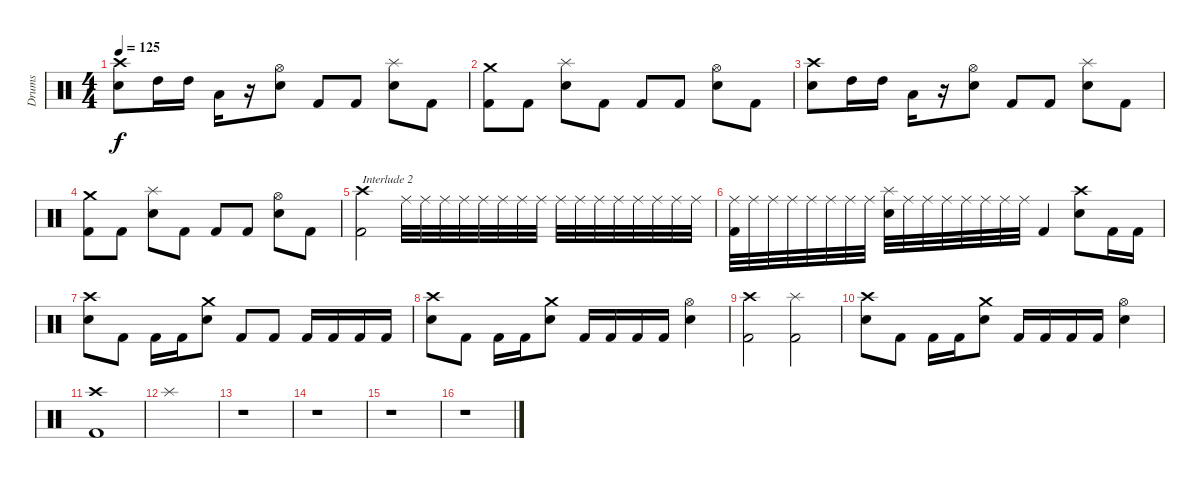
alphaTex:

\track ("Drums" "Drums") {instrument percussion}
\staff {score}
\articulation defaults
\ts (4 4)
\tempo 125
\clef neutral
\ks c
("Crash high (hit)" "Snare (hit) 2").8{dy f} "High Tom (hit)".16 "High Tom (hit)".16 "Low Tom (hit)".16 r.16 ("Hi-Hat (open)" "Snare (hit) 2").8 "Kick (hit) 2".8 "Kick (hit) 2".8 ("Splash (hit)" "Snare (hit) 2").8 "Kick (hit) 2".8 |
("Crash medium (hit)" "Kick (hit) 2").8 "Kick (hit) 2".8 ("Splash (hit)" "Snare (hit) 2").8 "Kick (hit) 2".8 "Kick (hit) 2".8 "Kick (hit) 2".8 ("Hi-Hat (open)" "Snare (hit) 2").8 "Kick (hit) 2".8 |
("Crash high (hit)" "Snare (hit) 2").8 "High Tom (hit)".16 "High Tom (hit)".16 "Low Tom (hit)".16 r.16 ("Hi-Hat (open)" "Snare (hit) 2").8 "Kick (hit) 2".8 "Kick (hit) 2".8 ("Splash (hit)" "Snare (hit) 2").8 "Kick (hit) 2".8 |
("Crash medium (hit)" "Kick (hit) 2").8 "Kick (hit) 2".8 ("Splash (hit)" "Snare (hit) 2").8 "Kick (hit) 2".8 "Kick (hit) 2".8 "Kick (hit) 2".8 ("Hi-Hat (open)" "Snare (hit) 2").8 "Kick (hit) 2".8 |
("Crash high (hit)" "Kick (hit) 2").2{txt "Interlude 2"} "Ride (middle)".32 "Ride (middle)".32 "Ride (middle)".32 "Ride (middle)".32 "Ride (middle)".32 "Ride (middle)".32 "Ride (middle)".32 "Ride (middle)".32 "Ride (middle)".32 "Ride (middle)".32 "Ride (middle)".32 "Ride (middle)".32 "Ride (middle)".32 "Ride (middle)".32 "Ride (middle)".32 "Ride (middle)".32 |
("Ride (middle)" "Kick (hit) 2").32 "Ride (middle)".32 "Ride (middle)".32 "Ride (middle)".32 "Ride (middle)".32 "Ride (middle)".32 "Ride (middle)".32 "Ride (middle)".32 ("Splash (hit)" "Snare (hit) 2").32 "Ride (middle)".32 "Ride (middle)".32 "Ride (middle)".32 "Ride (middle)".32 "Ride (middle)".32 "Ride (middle)".32 "Ride (middle)".32 "Kick (hit) 2".4 ("Crash high (hit)" "Snare (hit) 2").8 "Kick (hit) 2".16 "Kick (hit) 2".16 |
("Crash high (hit)" "Snare (hit) 2").8 "Kick (hit) 2".8 "Kick (hit) 2".16 "Kick (hit) 2".16 ("Crash medium (hit)" "Snare (hit) 2").8 "Kick (hit) 2".8 "Kick (hit) 2".8 "Kick (hit) 2".16 "Kick (hit) 2".16 "Kick (hit) 2".16 "Kick (hit) 2".16 |
("Crash high (hit)" "Snare (hit) 2").8 "Kick (hit) 2".8 "Kick (hit) 2".16 "Kick (hit) 2".16 ("Crash medium (hit)" "Snare (hit) 2").8 "Kick (hit) 2".16 "Kick (hit) 2".16 "Kick (hit) 2".16 "Kick (hit) 2".16 ("Hi-Hat (open)" "Snare (hit) 2").4 |
("Crash high (hit)" "Kick (hit) 2").2 ("Splash (hit)" "Kick (hit) 2").2 |
("Crash high (hit)" "Snare (hit) 2").8 "Kick (hit) 2".8 "Kick (hit) 2".16 "Kick (hit) 2".16 ("Crash medium (hit)" "Snare (hit) 2").8 "Kick (hit) 2".16 "Kick (hit) 2".16 "Kick (hit) 2".16 "Kick (hit) 2".16 ("Hi-Hat (open)" "Snare (hit) 2").4 |
("Crash high (hit)" "Kick (hit) 2").1 |
"Splash (hit)".1 |
r.1 |
r.1 |
r.1 |
r.1
